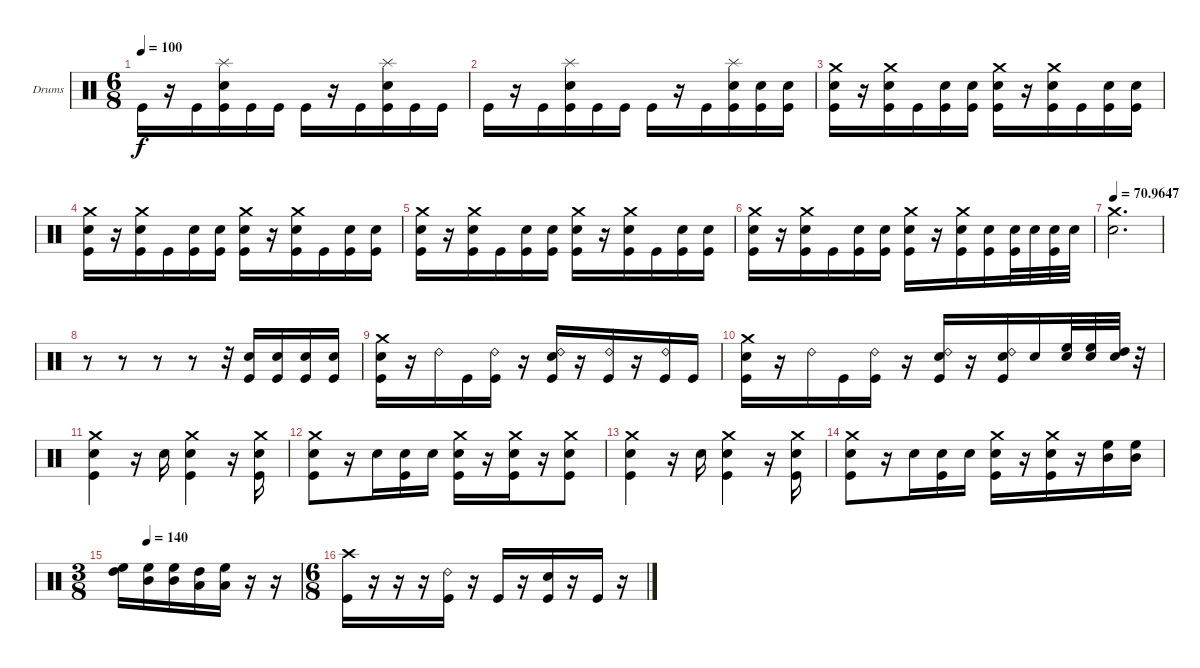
\defaultSystemsLayout 4
\bracketExtendMode groupsimilarinstruments
\firstSystemTrackNameOrientation horizontal
\otherSystemsTrackNameOrientation horizontal
\track ("Drumkit" "Drums") {instrument percussion}
\staff {score}
\articulation defaults
\ts (6 8)
\tempo 100
\clef neutral
\scale
0.333333
\ks c "Kick (hit)".16{dy f}
r.16 "Kick (hit)".16 ("Kick (hit)" "Snare (hit) 2" "Splash (hit)").16 "Kick (hit)".16 "Kick (hit)".16 "Kick (hit)".16 r.16 "Kick (hit)".16 ("Kick (hit)" "Snare (hit) 2" "Splash (hit)").16 "Kick (hit)".16 "Kick (hit)".16 |
\scale
0.333333 "Kick (hit)".16 r.16 "Kick (hit)".16 ("Kick (hit)" "Snare (hit) 2" "Splash (hit)").16 "Kick (hit)".16 "Kick (hit)".16 "Kick (hit)".16 r.16 "Kick (hit)".16 ("Kick (hit)" "Snare (hit) 2" "Splash (hit)").16 ("Kick (hit)" "Snare (hit) 2").16 ("Kick (hit)" "Snare (hit) 2").16 |
\scale
0.333333 ("Kick (hit)" "Snare (hit) 2" "Crash medium (hit)").16 r.16 ("Kick (hit)" "Snare (hit) 2" "Crash medium (hit)").16 "Kick (hit)".16 ("Kick (hit)" "Snare (hit) 2").16 ("Kick (hit)" "Snare (hit) 2").16 ("Kick (hit)" "Snare (hit) 2" "Crash medium (hit)").16 r.16 ("Kick (hit)" "Snare (hit) 2" "Crash medium (hit)").16 "Kick (hit)".16 ("Kick (hit)" "Snare (hit) 2").16 ("Kick (hit)" "Snare (hit) 2").16 |
\scale
0.333333 ("Kick (hit)" "Snare (hit) 2" "Crash medium (hit)").16 r.16 ("Kick (hit)" "Snare (hit) 2" "Crash medium (hit)").16 "Kick (hit)".16 ("Kick (hit)" "Snare (hit) 2").16 ("Kick (hit)" "Snare (hit) 2").16 ("Kick (hit)" "Snare (hit) 2" "Crash medium (hit)").16 r.16 ("Kick (hit)" "Snare (hit) 2" "Crash medium (hit)").16 "Kick (hit)".16 ("Kick (hit)" "Snare (hit) 2").16 ("Kick (hit)" "Snare (hit) 2").16 |
\scale
0.333333 ("Kick (hit)" "Snare (hit) 2" "Crash medium (hit)").16 r.16 ("Kick (hit)" "Snare (hit) 2" "Crash medium (hit)").16 "Kick (hit)".16 ("Kick (hit)" "Snare (hit) 2").16 ("Kick (hit)" "Snare (hit) 2").16 ("Kick (hit)" "Snare (hit) 2" "Crash medium (hit)").16 r.16 ("Kick (hit)" "Snare (hit) 2" "Crash medium (hit)").16 "Kick (hit)".16 ("Kick (hit)" "Snare (hit) 2").16 ("Kick (hit)" "Snare (hit) 2").16 |
\scale
0.333333 ("Kick (hit)" "Snare (hit) 2" "Crash medium (hit)").16 r.16 ("Kick (hit)" "Snare (hit) 2" "Crash medium (hit)").16 "Kick (hit)".16 ("Kick (hit)" "Snare (hit) 2").16 ("Kick (hit)" "Snare (hit) 2").16 ("Kick (hit)" "Snare (hit) 2" "Crash medium (hit)").16 r.16 ("Kick (hit)" "Snare (hit) 2" "Crash medium (hit)").16 ("Kick (hit)" "Snare (hit) 2").16 ("Kick (hit)" "Snare (hit) 2").32 "Snare (hit) 2".32 ("Kick (hit)" "Snare (hit) 2").32 "Snare (hit) 2".32 |
\tempo
70.9647
\scale
0.333333 ("Crash medium (hit)" "Snare (hit) 2").2{d} |
\scale
0.333333 r.8 r.8 r.8 r.8 r.32 ("Snare (hit) 2" "Kick (hit)").16 ("Snare (hit) 2" "Kick (hit)").16 ("Snare (hit) 2" "Kick (hit)").16 ("Snare (hit) 2" "Kick (hit)").16 |
\scale
0.333333 ("Crash medium (hit)" "Snare (hit) 2" "Kick (hit)").16 r.16 "Ride (bell) 2".16 "Kick (hit)".16 ("Ride (bell) 2" "Kick (hit)").16 r.16 ("Ride (bell) 2" "Snare (hit) 2" "Kick (hit)").16 r.16 ("Ride (bell) 2" "Kick (hit)").16 r.16 ("Ride (bell) 2" "Kick (hit)").16 "Kick (hit)".16 |
\scale
0.333333 ("Crash medium (hit)" "Snare (hit) 2" "Kick (hit)").16 r.16 "Ride (bell) 2".16 "Kick (hit)".16 ("Ride (bell) 2" "Kick (hit)").16 r.16 ("Ride (bell) 2" "Snare (hit) 2" "Kick (hit)").16 r.16 ("Ride (bell) 2" "Snare (hit) 2" "Kick (hit)").16 "Snare (hit) 2".16 ("High Floor Tom (hit)" "Snare (hit) 2").32 ("High Floor Tom (hit)" "Snare (hit) 2").32 ("High Tom (hit)" "Snare (hit) 2").32 r.32 |
\scale
0.333333 ("Crash medium (hit)" "Snare (hit) 2" "Kick (hit)").4 r.16 "Snare (hit) 2".16 ("Crash medium (hit)" "Snare (hit) 2" "Kick (hit)").4 r.16 ("Crash medium (hit)" "Snare (hit) 2" "Kick (hit)").16 |
\scale
0.333333 ("Crash medium (hit)" "Snare (hit) 2" "Kick (hit)").8 r.16 "Snare (hit) 2".16 ("Snare (hit) 2" "Kick (hit)").16 "Snare (hit) 2".16 ("Crash medium (hit)" "Snare (hit) 2" "Kick (hit)").16 r.16 ("Crash medium (hit)" "Snare (hit) 2" "Kick (hit)").16 r.16 ("Crash medium (hit)" "Snare (hit) 2" "Kick (hit)").8 |
\scale
0.333333 ("Crash medium (hit)" "Snare (hit) 2" "Kick (hit)").4 r.16 "Snare (hit) 2".16 ("Crash medium (hit)" "Snare (hit) 2" "Kick (hit)").4 r.16 ("Crash medium (hit)" "Snare (hit) 2" "Kick (hit)").16 |
\scale
0.333333 ("Crash medium (hit)" "Snare (hit) 2" "Kick (hit)").8 r.16 "Snare (hit) 2".16 ("Snare (hit) 2" "Kick (hit)").16 "Snare (hit) 2".16 ("Crash medium (hit)" "Snare (hit) 2" "Kick (hit)").16 r.16 ("Crash medium (hit)" "Snare (hit) 2" "Kick (hit)").16 r.16 ("High Floor Tom (hit)" "Mid Tom (hit)").16 ("Mid Tom (hit)" "High Floor Tom (hit)").16 |
\ts (3 8)
\tempo (140 0.1625)
\scale
0.333333 ("High Tom (hit)" "High Floor Tom (hit)").16 ("High Floor Tom (hit)" "Mid Tom (hit)").16 ("Mid Tom (hit)" "High Floor Tom (hit)").16 ("Low Tom (hit)" "High Tom (hit)").16 ("High Floor Tom (hit)" "Low Tom (hit)").16 r.16 r.16 |
\ts (6 8)
\scale
0.333333 ("Crash high (hit)" "Kick (hit)").16 r.16 r.16 r.16 ("Ride (bell) 2" "Kick (hit)").16 r.16 "Kick (hit)".16 r.16 ("Snare (hit) 2" "Kick (hit)").16 r.16 "Kick (hit)".16 r.16
